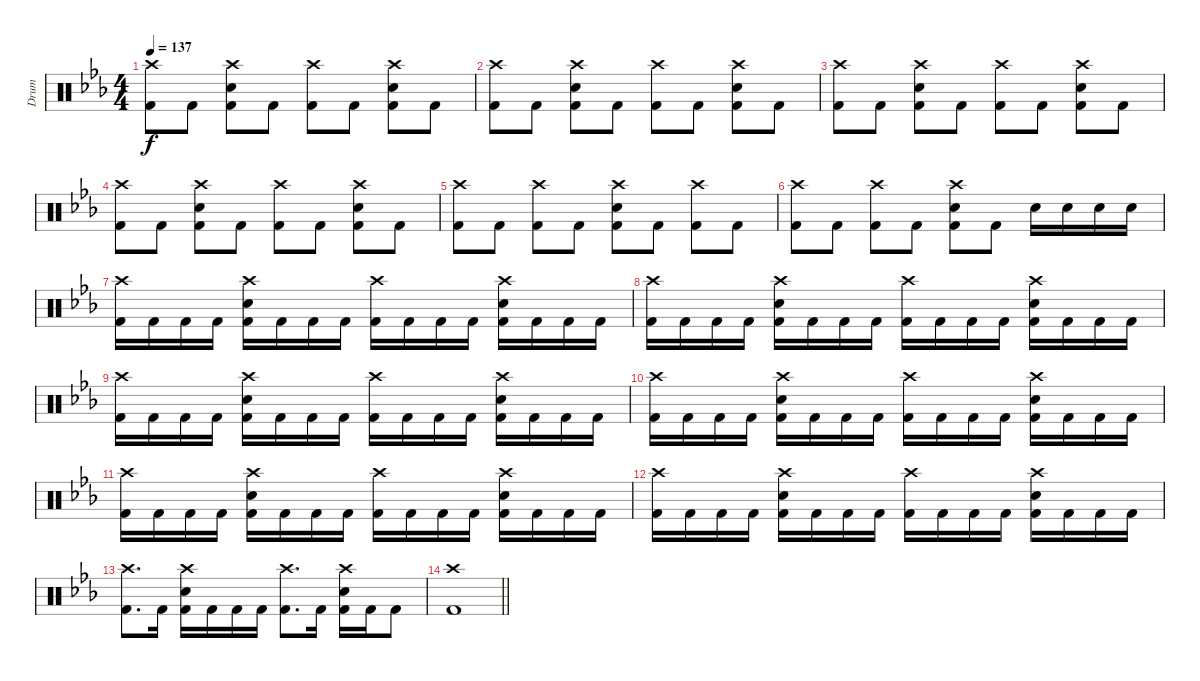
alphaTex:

\track ("Drum" "Drum") {instrument percussion}
\staff {score}
\articulation defaults
\ts (4 4)
\tempo 137
\clef neutral
\ks eb
("Crash high (hit)" "Kick (hit) 2").8{dy f} "Kick (hit) 2".8 ("Crash high (hit)" "Snare (hit) 2" "Kick (hit) 2").8 "Kick (hit) 2".8 ("Crash high (hit)" "Kick (hit) 2").8 "Kick (hit) 2".8 ("Crash high (hit)" "Snare (hit) 2" "Kick (hit) 2").8 "Kick (hit) 2".8 |
("Crash high (hit)" "Kick (hit) 2").8 "Kick (hit) 2".8 ("Crash high (hit)" "Snare (hit) 2" "Kick (hit) 2").8 "Kick (hit) 2".8 ("Crash high (hit)" "Kick (hit) 2").8 "Kick (hit) 2".8 ("Crash high (hit)" "Snare (hit) 2" "Kick (hit) 2").8 "Kick (hit) 2".8 |
("Crash high (hit)" "Kick (hit) 2").8 "Kick (hit) 2".8 ("Crash high (hit)" "Snare (hit) 2" "Kick (hit) 2").8 "Kick (hit) 2".8 ("Crash high (hit)" "Kick (hit) 2").8 "Kick (hit) 2".8 ("Crash high (hit)" "Snare (hit) 2" "Kick (hit) 2").8 "Kick (hit) 2".8 |
("Crash high (hit)" "Kick (hit) 2").8 "Kick (hit) 2".8 ("Crash high (hit)" "Snare (hit) 2" "Kick (hit) 2").8 "Kick (hit) 2".8 ("Crash high (hit)" "Kick (hit) 2").8 "Kick (hit) 2".8 ("Crash high (hit)" "Snare (hit) 2" "Kick (hit) 2").8 "Kick (hit) 2".8 |
("Crash high (hit)" "Kick (hit) 2").8 "Kick (hit) 2".8 ("Crash high (hit)" "Kick (hit) 2").8 "Kick (hit) 2".8 ("Crash high (hit)" "Snare (hit) 2" "Kick (hit) 2").8 "Kick (hit) 2".8 ("Crash high (hit)" "Kick (hit) 2").8 "Kick (hit) 2".8 |
("Crash high (hit)" "Kick (hit) 2").8 "Kick (hit) 2".8 ("Crash high (hit)" "Kick (hit) 2").8 "Kick (hit) 2".8 ("Crash high (hit)" "Snare (hit) 2" "Kick (hit) 2").8 "Kick (hit) 2".8 "Snare (hit) 2".16 "Snare (hit) 2".16 "Snare (hit) 2".16 "Snare (hit) 2".16 |
("Crash high (hit)" "Kick (hit) 2").16 "Kick (hit) 2".16 "Kick (hit) 2".16 "Kick (hit) 2".16 ("Crash high (hit)" "Snare (hit) 2" "Kick (hit) 2").16 "Kick (hit) 2".16 "Kick (hit) 2".16 "Kick (hit) 2".16 ("Crash high (hit)" "Kick (hit) 2").16 "Kick (hit) 2".16 "Kick (hit) 2".16 "Kick (hit) 2".16 ("Crash high (hit)" "Snare (hit) 2" "Kick (hit) 2").16 "Kick (hit) 2".16 "Kick (hit) 2".16 "Kick (hit) 2".16 |
("Crash high (hit)" "Kick (hit) 2").16 "Kick (hit) 2".16 "Kick (hit) 2".16 "Kick (hit) 2".16 ("Crash high (hit)" "Snare (hit) 2" "Kick (hit) 2").16 "Kick (hit) 2".16 "Kick (hit) 2".16 "Kick (hit) 2".16 ("Crash high (hit)" "Kick (hit) 2").16 "Kick (hit) 2".16 "Kick (hit) 2".16 "Kick (hit) 2".16 ("Crash high (hit)" "Snare (hit) 2" "Kick (hit) 2").16 "Kick (hit) 2".16 "Kick (hit) 2".16 "Kick (hit) 2".16 |
("Crash high (hit)" "Kick (hit) 2").16 "Kick (hit) 2".16 "Kick (hit) 2".16 "Kick (hit) 2".16 ("Crash high (hit)" "Snare (hit) 2" "Kick (hit) 2").16 "Kick (hit) 2".16 "Kick (hit) 2".16 "Kick (hit) 2".16 ("Crash high (hit)" "Kick (hit) 2").16 "Kick (hit) 2".16 "Kick (hit) 2".16 "Kick (hit) 2".16 ("Crash high (hit)" "Snare (hit) 2" "Kick (hit) 2").16 "Kick (hit) 2".16 "Kick (hit) 2".16 "Kick (hit) 2".16 |
("Crash high (hit)" "Kick (hit) 2").16 "Kick (hit) 2".16 "Kick (hit) 2".16 "Kick (hit) 2".16 ("Crash high (hit)" "Snare (hit) 2" "Kick (hit) 2").16 "Kick (hit) 2".16 "Kick (hit) 2".16 "Kick (hit) 2".16 ("Crash high (hit)" "Kick (hit) 2").16 "Kick (hit) 2".16 "Kick (hit) 2".16 "Kick (hit) 2".16 ("Crash high (hit)" "Snare (hit) 2" "Kick (hit) 2").16 "Kick (hit) 2".16 "Kick (hit) 2".16 "Kick (hit) 2".16 |
("Crash high (hit)" "Kick (hit) 2").16 "Kick (hit) 2".16 "Kick (hit) 2".16 "Kick (hit) 2".16 ("Crash high (hit)" "Snare (hit) 2" "Kick (hit) 2").16 "Kick (hit) 2".16 "Kick (hit) 2".16 "Kick (hit) 2".16 ("Crash high (hit)" "Kick (hit) 2").16 "Kick (hit) 2".16 "Kick (hit) 2".16 "Kick (hit) 2".16 ("Crash high (hit)" "Snare (hit) 2" "Kick (hit) 2").16 "Kick (hit) 2".16 "Kick (hit) 2".16 "Kick (hit) 2".16 |
("Crash high (hit)" "Kick (hit) 2").16 "Kick (hit) 2".16 "Kick (hit) 2".16 "Kick (hit) 2".16 ("Crash high (hit)" "Snare (hit) 2" "Kick (hit) 2").16 "Kick (hit) 2".16 "Kick (hit) 2".16 "Kick (hit) 2".16 ("Crash high (hit)" "Kick (hit) 2").16 "Kick (hit) 2".16 "Kick (hit) 2".16 "Kick (hit) 2".16 ("Crash high (hit)" "Snare (hit) 2" "Kick (hit) 2").16 "Kick (hit) 2".16 "Kick (hit) 2".16 "Kick (hit) 2".16 |
("Crash high (hit)" "Kick (hit) 2").8{d} "Kick (hit) 2".16 ("Crash high (hit)" "Snare (hit) 2" "Kick (hit) 2").16 "Kick (hit) 2".16 "Kick (hit) 2".16 "Kick (hit) 2".16 ("Crash high (hit)" "Kick (hit) 2").8{d} "Kick (hit) 2".16 ("Crash high (hit)" "Snare (hit) 2" "Kick (hit) 2").16 "Kick (hit) 2".16 "Kick (hit) 2".8 |
\barLineRight lightlight
("Crash high (hit)" "Kick (hit) 2").1
